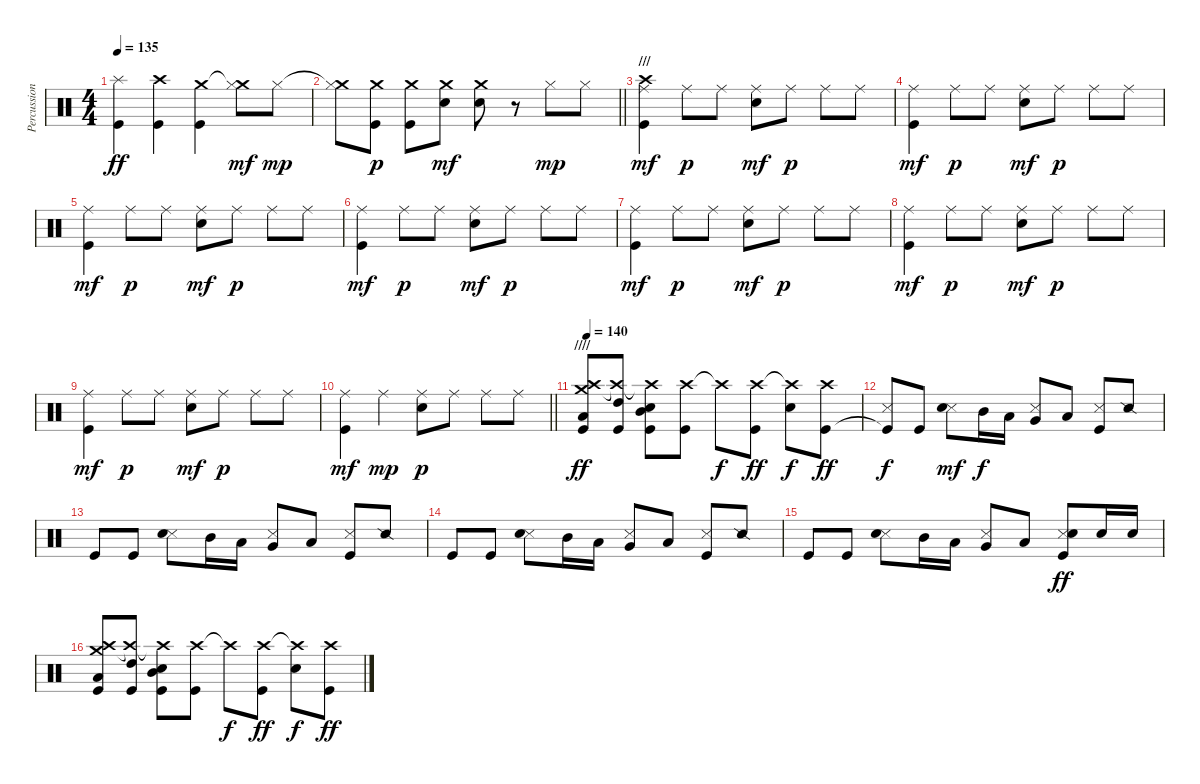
\track ("Percussion" "Percussion") {instrument percussion}
\staff {score}
\articulation defaults
\ts (4 4)
\tempo 135
\clef neutral
\ks c
("Splash (hit)" "Kick (hit)").4{dy ff} ("Crash high (hit)" "Kick (hit)").4 ("Crash medium (hit)" "Kick (hit)").4 ("Crash medium (hit)"{t} "Hi-Hat (closed)").8{dy mf} "Hi-Hat (closed)".8{dy mp} |
\barLineRight lightlight
("Crash medium (hit)"{t} "Hi-Hat (closed)").8 ("Crash medium (hit)" "Kick (hit)").8{dy p} ("Crash medium (hit)" "Kick (hit)").8 ("Crash medium (hit)" "Electric Snare (hit)").8{dy mf} ("Crash medium (hit)" "Electric Snare (hit)").8 r.8 "Hi-Hat (closed)".8{dy mp} "Hi-Hat (closed)".8 |
\section ("" "///")
("Crash high (hit)" "Ride (middle)" "Kick (hit)").4{dy mf} "Ride (middle)".8{dy p} "Ride (middle)".8 ("Ride (middle)" "Electric Snare (hit)").8{dy mf} "Ride (middle)".8{dy p} "Ride (middle)".8 "Ride (middle)".8 |
("Ride (middle)" "Kick (hit)").4{dy mf} "Ride (middle)".8{dy p} "Ride (middle)".8 ("Ride (middle)" "Electric Snare (hit)").8{dy mf} "Ride (middle)".8{dy p} "Ride (middle)".8 "Ride (middle)".8 |
("Ride (middle)" "Kick (hit)").4{dy mf} "Ride (middle)".8{dy p} "Ride (middle)".8 ("Ride (middle)" "Electric Snare (hit)").8{dy mf} "Ride (middle)".8{dy p} "Ride (middle)".8 "Ride (middle)".8 |
("Ride (middle)" "Kick (hit)").4{dy mf} "Ride (middle)".8{dy p} "Ride (middle)".8 ("Ride (middle)" "Electric Snare (hit)").8{dy mf} "Ride (middle)".8{dy p} "Ride (middle)".8 "Ride (middle)".8 |
("Ride (middle)" "Kick (hit)").4{dy mf} "Ride (middle)".8{dy p} "Ride (middle)".8 ("Ride (middle)" "Electric Snare (hit)").8{dy mf} "Ride (middle)".8{dy p} "Ride (middle)".8 "Ride (middle)".8 |
("Ride (middle)" "Kick (hit)").4{dy mf} "Ride (middle)".8{dy p} "Ride (middle)".8 ("Ride (middle)" "Electric Snare (hit)").8{dy mf} "Ride (middle)".8{dy p} "Ride (middle)".8 "Ride (middle)".8 |
("Ride (middle)" "Kick (hit)").4{dy mf} "Ride (middle)".8{dy p} "Ride (middle)".8 ("Ride (middle)" "Electric Snare (hit)").8{dy mf} "Ride (middle)".8{dy p} "Ride (middle)".8 "Ride (middle)".8 |
\barLineRight lightlight
("Ride (middle)" "Kick (hit)").4{dy mf} "Ride (middle)".4{dy mp} ("Ride (middle)" "Electric Snare (hit)").8{dy p} "Ride (middle)".8 "Ride (middle)".8 "Ride (middle)".8 |
\section ("" "////")
\tempo 140
("Crash medium (hit)" "Crash high (hit)" "Low Tom (hit)" "Kick (hit)").8{dy ff} ("Crash high (hit)"{t} "High Tom (hit)" "Kick (hit)").8 ("Crash high (hit)"{t} "Electric Snare (hit)" "Mid Tom (hit)" "Kick (hit)").8 ("Crash high (hit)" "Kick (hit)").8 "Crash high (hit)"{t}.8{dy f} ("Crash high (hit)" "Kick (hit)").8{dy ff} ("Crash high (hit)"{t} "Electric Snare (hit)").8{dy f} ("Crash high (hit)" "Kick (hit)").8{dy ff} |
("Snare (side stick) 3" "Kick (hit)"{t}).8{dy f} "Kick (hit)".8 ("Snare (side stick) 3" "Electric Snare (hit)").8{dy mf} "Mid Tom (hit)".16{dy f} "Low Tom (hit)".16 ("Snare (side stick) 3" "Very Low Tom (hit)").8 "Low Floor Tom (hit)".8 ("Snare (side stick) 3" "Kick (hit)").8 "Snare (side stick) 2".8 |
"Kick (hit)".8 "Kick (hit)".8 ("Snare (side stick) 3" "Electric Snare (hit)").8 "Mid Tom (hit)".16 "Low Tom (hit)".16 ("Snare (side stick) 3" "Very Low Tom (hit)").8 "Low Floor Tom (hit)".8 ("Snare (side stick) 3" "Kick (hit)").8 "Snare (side stick) 2".8 |
"Kick (hit)".8 "Kick (hit)".8 ("Snare (side stick) 3" "Electric Snare (hit)").8 "Mid Tom (hit)".16 "Low Tom (hit)".16 ("Snare (side stick) 3" "Very Low Tom (hit)").8 "Low Floor Tom (hit)".8 ("Snare (side stick) 3" "Kick (hit)").8 "Snare (side stick) 2".8 |
"Kick (hit)".8 "Kick (hit)".8 ("Snare (side stick) 3" "Electric Snare (hit)").8 "Mid Tom (hit)".16 "Low Tom (hit)".16 ("Snare (side stick) 3" "Very Low Tom (hit)").8 "Low Floor Tom (hit)".8 ("Snare (side stick) 3" "Electric Snare (hit)" "Kick (hit)").8{dy ff} "Electric Snare (hit)".16 "Electric Snare (hit)".16 |
("Crash medium (hit)" "Crash high (hit)" "Low Tom (hit)" "Kick (hit)").8 ("Crash high (hit)"{t} "High Tom (hit)" "Kick (hit)").8 ("Crash high (hit)"{t} "Electric Snare (hit)" "Mid Tom (hit)" "Kick (hit)").8 ("Crash high (hit)" "Kick (hit)").8 "Crash high (hit)"{t}.8{dy f} ("Crash high (hit)" "Kick (hit)").8{dy ff} ("Crash high (hit)"{t} "Electric Snare (hit)").8{dy f} ("Crash high (hit)" "Kick (hit)").8{dy ff}
